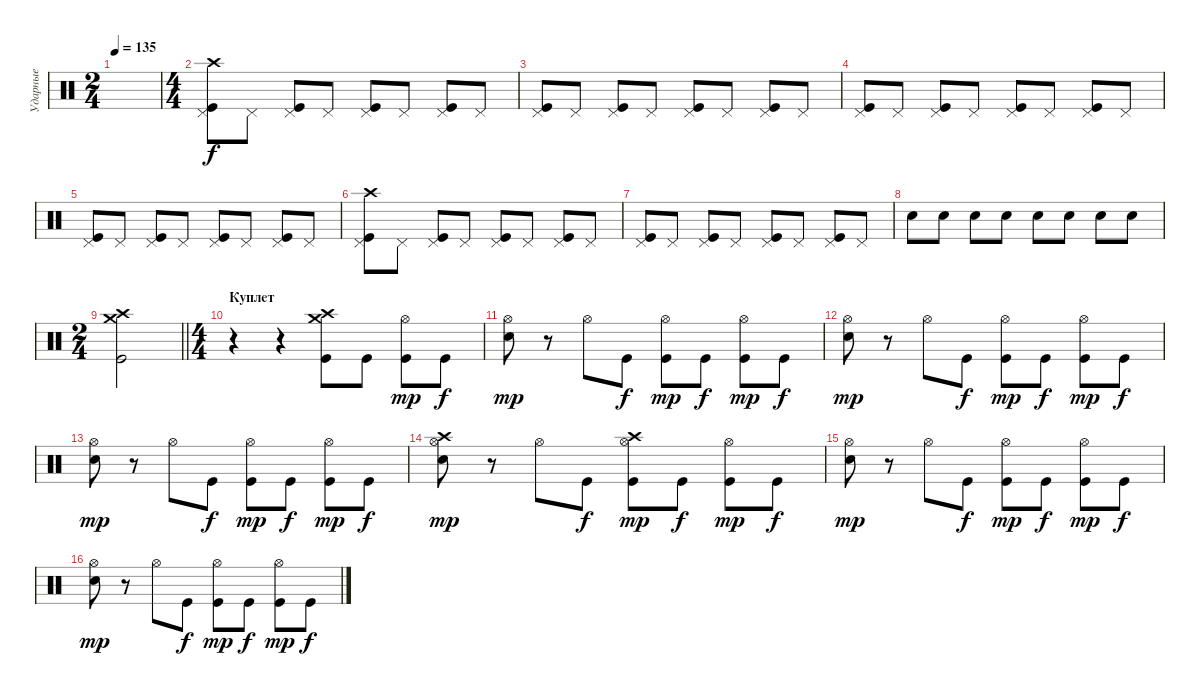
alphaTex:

\track ("Ударные" "Ударные") {instrument percussion bank 9}
\staff {score}
\articulation defaults
\ts (2 4)
\tempo 135
\clef neutral
\ks c
|
\ts (4 4)
("Pedal Hi-Hat (hit)" "Kick (hit)" "Crash high (hit)").8 "Pedal Hi-Hat (hit)".8 ("Pedal Hi-Hat (hit)" "Kick (hit)").8 "Pedal Hi-Hat (hit)".8 ("Pedal Hi-Hat (hit)" "Kick (hit)").8 "Pedal Hi-Hat (hit)".8 ("Pedal Hi-Hat (hit)" "Kick (hit)").8 "Pedal Hi-Hat (hit)".8 |
("Pedal Hi-Hat (hit)" "Kick (hit)").8 "Pedal Hi-Hat (hit)".8 ("Pedal Hi-Hat (hit)" "Kick (hit)").8 "Pedal Hi-Hat (hit)".8 ("Pedal Hi-Hat (hit)" "Kick (hit)").8 "Pedal Hi-Hat (hit)".8 ("Pedal Hi-Hat (hit)" "Kick (hit)").8 "Pedal Hi-Hat (hit)".8 |
("Pedal Hi-Hat (hit)" "Kick (hit)").8 "Pedal Hi-Hat (hit)".8 ("Pedal Hi-Hat (hit)" "Kick (hit)").8 "Pedal Hi-Hat (hit)".8 ("Pedal Hi-Hat (hit)" "Kick (hit)").8 "Pedal Hi-Hat (hit)".8 ("Pedal Hi-Hat (hit)" "Kick (hit)").8 "Pedal Hi-Hat (hit)".8 |
("Pedal Hi-Hat (hit)" "Kick (hit)").8 "Pedal Hi-Hat (hit)".8 ("Pedal Hi-Hat (hit)" "Kick (hit)").8 "Pedal Hi-Hat (hit)".8 ("Pedal Hi-Hat (hit)" "Kick (hit)").8 "Pedal Hi-Hat (hit)".8 ("Pedal Hi-Hat (hit)" "Kick (hit)").8 "Pedal Hi-Hat (hit)".8 |
("Pedal Hi-Hat (hit)" "Kick (hit)" "Crash high (hit)").8 "Pedal Hi-Hat (hit)".8 ("Pedal Hi-Hat (hit)" "Kick (hit)").8 "Pedal Hi-Hat (hit)".8 ("Pedal Hi-Hat (hit)" "Kick (hit)").8 "Pedal Hi-Hat (hit)".8 ("Pedal Hi-Hat (hit)" "Kick (hit)").8 "Pedal Hi-Hat (hit)".8 |
("Pedal Hi-Hat (hit)" "Kick (hit)").8 "Pedal Hi-Hat (hit)".8 ("Pedal Hi-Hat (hit)" "Kick (hit)").8 "Pedal Hi-Hat (hit)".8 ("Pedal Hi-Hat (hit)" "Kick (hit)").8 "Pedal Hi-Hat (hit)".8 ("Pedal Hi-Hat (hit)" "Kick (hit)").8 "Pedal Hi-Hat (hit)".8 |
"Electric Snare (hit)".8 "Electric Snare (hit)".8 "Electric Snare (hit)".8 "Electric Snare (hit)".8 "Electric Snare (hit)".8 "Electric Snare (hit)".8 "Electric Snare (hit)".8 "Electric Snare (hit)".8 |
\ts (2 4)
\barLineRight lightlight
("Crash medium (hit)" "Crash high (hit)" "Kick (hit)").2 |
\ts (4 4)
\section ("" "Куплет")
r.4 r.4 ("Crash medium (hit)" "Crash high (hit)" "Kick (hit)").8 "Kick (hit)".8 ("Kick (hit)" "Hi-Hat (open)").8{dy mp} "Kick (hit)".8{dy f} |
("Electric Snare (hit)" "Hi-Hat (open)").8{dy mp} r.8 "Hi-Hat (open)".8 "Kick (hit)".8{dy f} ("Kick (hit)" "Hi-Hat (open)").8{dy mp} "Kick (hit)".8{dy f} ("Kick (hit)" "Hi-Hat (open)").8{dy mp} "Kick (hit)".8{dy f} |
("Electric Snare (hit)" "Hi-Hat (open)").8{dy mp} r.8 "Hi-Hat (open)".8 "Kick (hit)".8{dy f} ("Kick (hit)" "Hi-Hat (open)").8{dy mp} "Kick (hit)".8{dy f} ("Kick (hit)" "Hi-Hat (open)").8{dy mp} "Kick (hit)".8{dy f} |
("Electric Snare (hit)" "Hi-Hat (open)").8{dy mp} r.8 "Hi-Hat (open)".8 "Kick (hit)".8{dy f} ("Kick (hit)" "Hi-Hat (open)").8{dy mp} "Kick (hit)".8{dy f} ("Kick (hit)" "Hi-Hat (open)").8{dy mp} "Kick (hit)".8{dy f} |
("Electric Snare (hit)" "Crash high (hit)" "Hi-Hat (open)").8{dy mp} r.8 "Hi-Hat (open)".8 "Kick (hit)".8{dy f} ("Crash high (hit)" "Kick (hit)" "Hi-Hat (open)").8{dy mp} "Kick (hit)".8{dy f} ("Kick (hit)" "Hi-Hat (open)").8{dy mp} "Kick (hit)".8{dy f} |
("Electric Snare (hit)" "Hi-Hat (open)").8{dy mp} r.8 "Hi-Hat (open)".8 "Kick (hit)".8{dy f} ("Kick (hit)" "Hi-Hat (open)").8{dy mp} "Kick (hit)".8{dy f} ("Kick (hit)" "Hi-Hat (open)").8{dy mp} "Kick (hit)".8{dy f} |
("Electric Snare (hit)" "Hi-Hat (open)").8{dy mp} r.8 "Hi-Hat (open)".8 "Kick (hit)".8{dy f} ("Kick (hit)" "Hi-Hat (open)").8{dy mp} "Kick (hit)".8{dy f} ("Kick (hit)" "Hi-Hat (open)").8{dy mp} "Kick (hit)".8{dy f}
